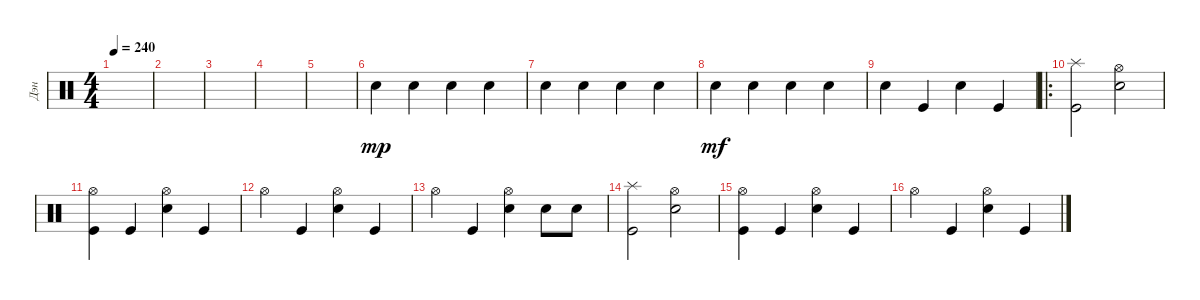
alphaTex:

\track ("Дэн" "Дэн") {instrument percussion}
\staff {score}
\articulation defaults
\ts (4 4)
\tempo 240
\clef neutral
\ks c
|
|
|
|
|
"Snare (hit) 2".4{dy mp} "Snare (hit) 2".4 "Snare (hit) 2".4 "Snare (hit) 2".4 |
"Snare (hit) 2".4 "Snare (hit) 2".4 "Snare (hit) 2".4 "Snare (hit) 2".4 |
"Snare (hit) 2".4{dy mf} "Snare (hit) 2".4 "Snare (hit) 2".4 "Snare (hit) 2".4 |
"Snare (hit) 2".4 "Kick (hit)".4 "Snare (hit) 2".4 "Kick (hit)".4 |
\ro
("Kick (hit)" "Splash (hit)").2 ("Snare (hit) 2" "Hi-Hat (open)").2 |
("Kick (hit)" "Hi-Hat (open)").4 "Kick (hit)".4 ("Snare (hit) 2" "Hi-Hat (open)").4 "Kick (hit)".4 |
"Hi-Hat (open)".4 "Kick (hit)".4 ("Snare (hit) 2" "Hi-Hat (open)").4 "Kick (hit)".4 |
"Hi-Hat (open)".4 "Kick (hit)".4 ("Snare (hit) 2" "Hi-Hat (open)").4 "Snare (hit) 2".8 "Snare (hit) 2".8 |
("Kick (hit)" "Splash (hit)").2 ("Snare (hit) 2" "Hi-Hat (open)").2 |
("Kick (hit)" "Hi-Hat (open)").4 "Kick (hit)".4 ("Snare (hit) 2" "Hi-Hat (open)").4 "Kick (hit)".4 |
"Hi-Hat (open)".4 "Kick (hit)".4 ("Snare (hit) 2" "Hi-Hat (open)").4 "Kick (hit)".4
